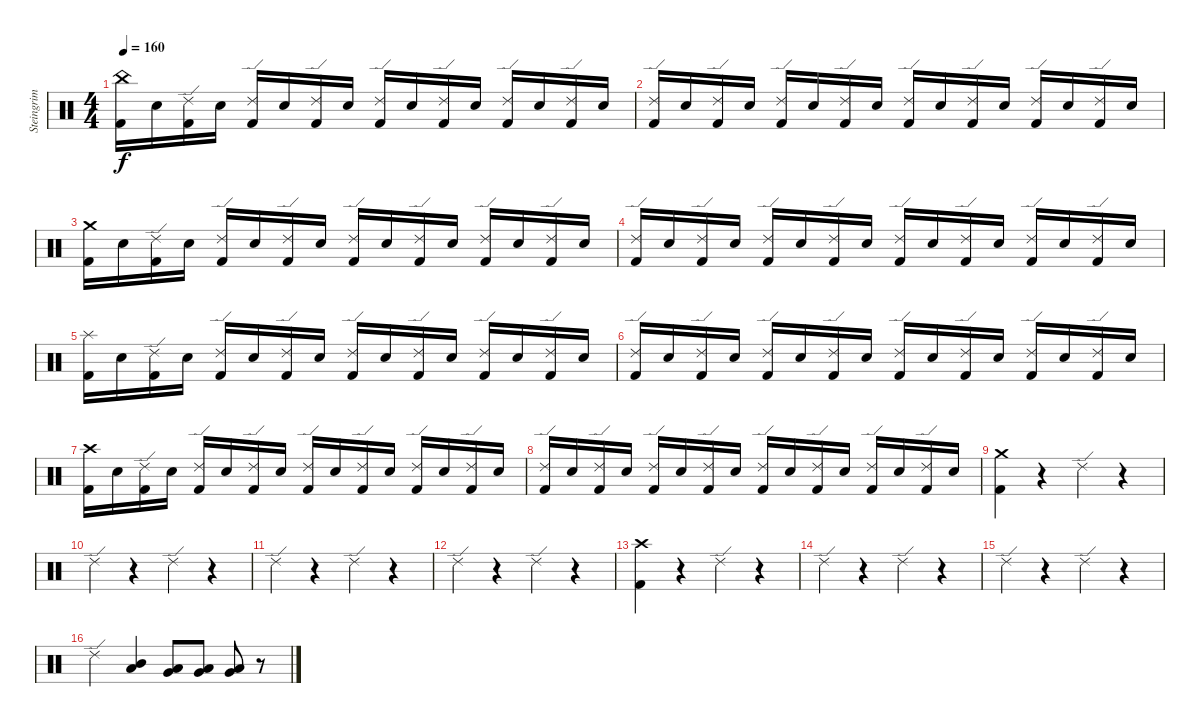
\track ("Steingrim Trommur" "Steingrim ") {instrument percussion}
\staff {score}
\articulation defaults
\ts (4 4)
\tempo 160
\clef neutral
\ks c
("China (hit)" "Kick (hit) 2").16{dy f} "Electric Snare (hit)".16 ("Ride (edge) 2" "Kick (hit) 2").16 "Electric Snare (hit)".16 ("Ride (edge) 2" "Kick (hit) 2").16 "Electric Snare (hit)".16 ("Ride (edge) 2" "Kick (hit) 2").16 "Electric Snare (hit)".16 ("Ride (edge) 2" "Kick (hit) 2").16 "Electric Snare (hit)".16 ("Ride (edge) 2" "Kick (hit) 2").16 "Electric Snare (hit)".16 ("Ride (edge) 2" "Kick (hit) 2").16 "Electric Snare (hit)".16 ("Ride (edge) 2" "Kick (hit) 2").16 "Electric Snare (hit)".16 |
("Ride (edge) 2" "Kick (hit) 2").16 "Electric Snare (hit)".16 ("Ride (edge) 2" "Kick (hit) 2").16 "Electric Snare (hit)".16 ("Ride (edge) 2" "Kick (hit) 2").16 "Electric Snare (hit)".16 ("Ride (edge) 2" "Kick (hit) 2").16 "Electric Snare (hit)".16 ("Ride (edge) 2" "Kick (hit) 2").16 "Electric Snare (hit)".16 ("Ride (edge) 2" "Kick (hit) 2").16 "Electric Snare (hit)".16 ("Ride (edge) 2" "Kick (hit) 2").16 "Electric Snare (hit)".16 ("Ride (edge) 2" "Kick (hit) 2").16 "Electric Snare (hit)".16 |
("Crash medium (hit)" "Kick (hit) 2").16 "Electric Snare (hit)".16 ("Ride (edge) 2" "Kick (hit) 2").16 "Electric Snare (hit)".16 ("Ride (edge) 2" "Kick (hit) 2").16 "Electric Snare (hit)".16 ("Ride (edge) 2" "Kick (hit) 2").16 "Electric Snare (hit)".16 ("Ride (edge) 2" "Kick (hit) 2").16 "Electric Snare (hit)".16 ("Ride (edge) 2" "Kick (hit) 2").16 "Electric Snare (hit)".16 ("Ride (edge) 2" "Kick (hit) 2").16 "Electric Snare (hit)".16 ("Ride (edge) 2" "Kick (hit) 2").16 "Electric Snare (hit)".16 |
("Ride (edge) 2" "Kick (hit) 2").16 "Electric Snare (hit)".16 ("Ride (edge) 2" "Kick (hit) 2").16 "Electric Snare (hit)".16 ("Ride (edge) 2" "Kick (hit) 2").16 "Electric Snare (hit)".16 ("Ride (edge) 2" "Kick (hit) 2").16 "Electric Snare (hit)".16 ("Ride (edge) 2" "Kick (hit) 2").16 "Electric Snare (hit)".16 ("Ride (edge) 2" "Kick (hit) 2").16 "Electric Snare (hit)".16 ("Ride (edge) 2" "Kick (hit) 2").16 "Electric Snare (hit)".16 ("Ride (edge) 2" "Kick (hit) 2").16 "Electric Snare (hit)".16 |
("Splash (hit)" "Kick (hit) 2").16 "Electric Snare (hit)".16 ("Ride (edge) 2" "Kick (hit) 2").16 "Electric Snare (hit)".16 ("Ride (edge) 2" "Kick (hit) 2").16 "Electric Snare (hit)".16 ("Ride (edge) 2" "Kick (hit) 2").16 "Electric Snare (hit)".16 ("Ride (edge) 2" "Kick (hit) 2").16 "Electric Snare (hit)".16 ("Ride (edge) 2" "Kick (hit) 2").16 "Electric Snare (hit)".16 ("Ride (edge) 2" "Kick (hit) 2").16 "Electric Snare (hit)".16 ("Ride (edge) 2" "Kick (hit) 2").16 "Electric Snare (hit)".16 |
("Ride (edge) 2" "Kick (hit) 2").16 "Electric Snare (hit)".16 ("Ride (edge) 2" "Kick (hit) 2").16 "Electric Snare (hit)".16 ("Ride (edge) 2" "Kick (hit) 2").16 "Electric Snare (hit)".16 ("Ride (edge) 2" "Kick (hit) 2").16 "Electric Snare (hit)".16 ("Ride (edge) 2" "Kick (hit) 2").16 "Electric Snare (hit)".16 ("Ride (edge) 2" "Kick (hit) 2").16 "Electric Snare (hit)".16 ("Ride (edge) 2" "Kick (hit) 2").16 "Electric Snare (hit)".16 ("Ride (edge) 2" "Kick (hit) 2").16 "Electric Snare (hit)".16 |
("Crash high (hit)" "Kick (hit) 2").16 "Electric Snare (hit)".16 ("Ride (edge) 2" "Kick (hit) 2").16 "Electric Snare (hit)".16 ("Ride (edge) 2" "Kick (hit) 2").16 "Electric Snare (hit)".16 ("Ride (edge) 2" "Kick (hit) 2").16 "Electric Snare (hit)".16 ("Ride (edge) 2" "Kick (hit) 2").16 "Electric Snare (hit)".16 ("Ride (edge) 2" "Kick (hit) 2").16 "Electric Snare (hit)".16 ("Ride (edge) 2" "Kick (hit) 2").16 "Electric Snare (hit)".16 ("Ride (edge) 2" "Kick (hit) 2").16 "Electric Snare (hit)".16 |
("Ride (edge) 2" "Kick (hit) 2").16 "Electric Snare (hit)".16 ("Ride (edge) 2" "Kick (hit) 2").16 "Electric Snare (hit)".16 ("Ride (edge) 2" "Kick (hit) 2").16 "Electric Snare (hit)".16 ("Ride (edge) 2" "Kick (hit) 2").16 "Electric Snare (hit)".16 ("Ride (edge) 2" "Kick (hit) 2").16 "Electric Snare (hit)".16 ("Ride (edge) 2" "Kick (hit) 2").16 "Electric Snare (hit)".16 ("Ride (edge) 2" "Kick (hit) 2").16 "Electric Snare (hit)".16 ("Ride (edge) 2" "Kick (hit) 2").16 "Electric Snare (hit)".16 |
("Crash medium (hit)" "Kick (hit) 2").4 r.4 "Ride (edge) 2".4 r.4 |
"Ride (edge) 2".4 r.4 "Ride (edge) 2".4 r.4 |
"Ride (edge) 2".4 r.4 "Ride (edge) 2".4 r.4 |
"Ride (edge) 2".4 r.4 "Ride (edge) 2".4 r.4 |
("Crash high (hit)" "Kick (hit) 2").4 r.4 "Ride (edge) 2".4 r.4 |
"Ride (edge) 2".4 r.4 "Ride (edge) 2".4 r.4 |
"Ride (edge) 2".4 r.4 "Ride (edge) 2".4 r.4 |
"Ride (edge) 2".4 ("Mid Tom (hit)" "Low Tom (hit)").4 ("Low Tom (hit)" "Very Low Tom (hit)").8 ("Low Tom (hit)" "Very Low Tom (hit)").8 ("Very Low Tom (hit)" "Low Floor Tom (hit)").8 r.8
